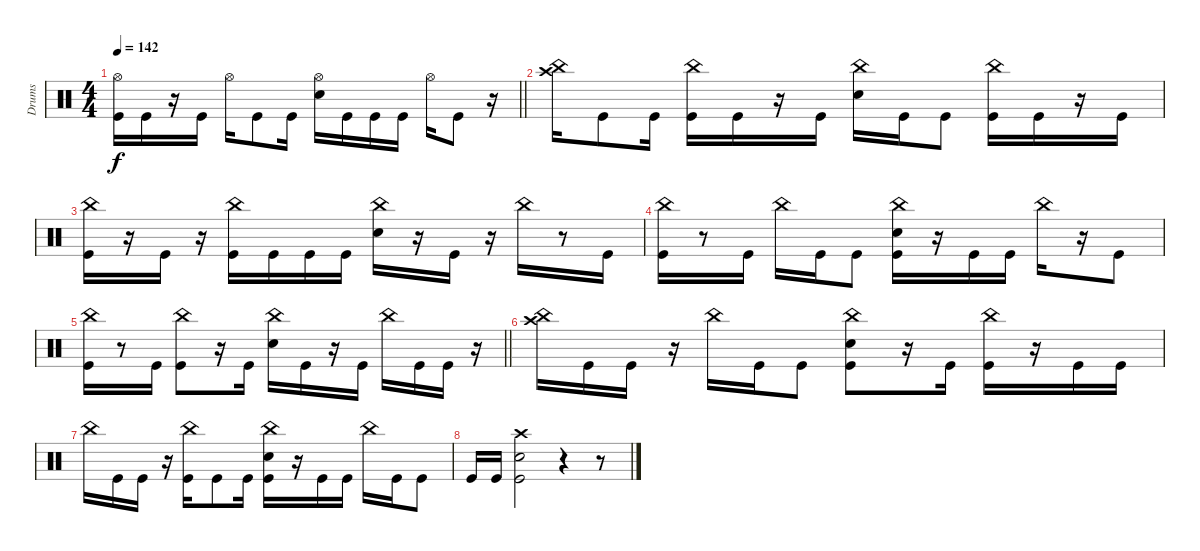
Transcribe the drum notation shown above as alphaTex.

\track ("Drums" "Drums") {instrument percussion}
\staff {score}
\articulation defaults
\ts (4 4)
\tempo 142
\clef neutral
\barLineRight lightlight
\ks c
("Kick (hit)" "Hi-Hat (open)").16{dy f} "Kick (hit)".16 r.16 "Kick (hit)".16 "Hi-Hat (open)".16 "Kick (hit)".8 "Kick (hit)".16 ("Hi-Hat (open)" "Electric Snare (hit)").16 "Kick (hit)".16 "Kick (hit)".16 "Kick (hit)".16 "Hi-Hat (open)".16 "Kick (hit)".8 r.16 |
("China (hit)" "Crash high (hit)").16 "Kick (hit)".8 "Kick (hit)".16 ("Kick (hit)" "China (hit)").16 "Kick (hit)".16 r.16 "Kick (hit)".16 ("China (hit)" "Electric Snare (hit)").16 "Kick (hit)".16 "Kick (hit)".8 ("Kick (hit)" "China (hit)").16 "Kick (hit)".16 r.16 "Kick (hit)".16 |
("Kick (hit)" "China (hit)").16 r.16 "Kick (hit)".16 r.16 ("Kick (hit)" "China (hit)").16 "Kick (hit)".16 "Kick (hit)".16 "Kick (hit)".16 ("China (hit)" "Electric Snare (hit)").16 r.16 "Kick (hit)".16 r.16 "China (hit)".16 r.8 "Kick (hit)".16 |
("Kick (hit)" "China (hit)").16 r.8 "Kick (hit)".16 "China (hit)".16 "Kick (hit)".16 "Kick (hit)".8 ("Kick (hit)" "China (hit)" "Electric Snare (hit)").16 r.16 "Kick (hit)".16 "Kick (hit)".16 "China (hit)".16 r.16 "Kick (hit)".8 |
\barLineRight lightlight
("Kick (hit)" "China (hit)").16 r.8 "Kick (hit)".16 ("Kick (hit)" "China (hit)").8 r.16 "Kick (hit)".16 ("China (hit)" "Electric Snare (hit)").16 "Kick (hit)".16 r.16 "Kick (hit)".16 "China (hit)".16 "Kick (hit)".16 "Kick (hit)".16 r.16 |
("China (hit)" "Crash high (hit)").16 "Kick (hit)".16 "Kick (hit)".16 r.16 "China (hit)".16 "Kick (hit)".16 "Kick (hit)".8 ("Kick (hit)" "China (hit)" "Electric Snare (hit)").8 r.16 "Kick (hit)".16 ("Kick (hit)" "China (hit)").16 r.16 "Kick (hit)".16 "Kick (hit)".16 |
"China (hit)".16 "Kick (hit)".16 "Kick (hit)".16 r.16 ("Kick (hit)" "China (hit)").16 "Kick (hit)".8 "Kick (hit)".16 ("Kick (hit)" "China (hit)" "Electric Snare (hit)").16 r.16 "Kick (hit)".16 "Kick (hit)".16 "China (hit)".16 "Kick (hit)".16 "Kick (hit)".8 |
"Kick (hit)".16 "Kick (hit)".16 ("Kick (hit)" "Electric Snare (hit)" "Crash high (hit)").2 r.4 r.8
